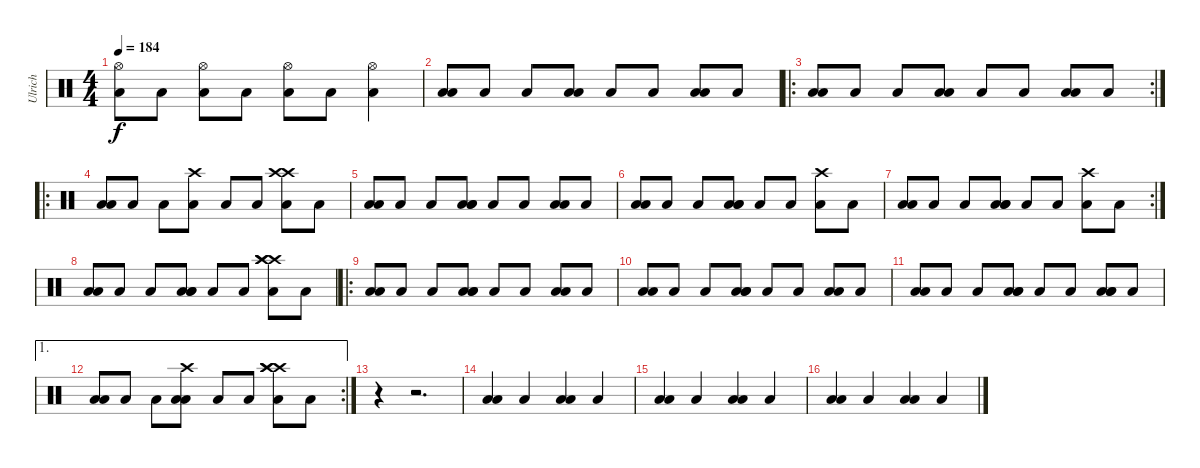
\track ("Ulrich" "Ulrich") {instrument percussion}
\staff {score}
\articulation defaults
\ts (4 4)
\tempo 184
\clef neutral
\ks c
("Low Tom (hit)" "Hi-Hat (open)").8{dy f} "Low Tom (hit)".8 ("Low Tom (hit)" "Hi-Hat (open)").8 "Low Tom (hit)".8 ("Low Tom (hit)" "Hi-Hat (open)").8 "Low Tom (hit)".8 ("Low Tom (hit)" "Hi-Hat (open)").4 |
("Low Tom (hit)" "Low Tom (hit)").8 "Low Tom (hit)".8 "Low Tom (hit)".8 ("Low Tom (hit)" "Low Tom (hit)").8 "Low Tom (hit)".8 "Low Tom (hit)".8 ("Low Tom (hit)" "Low Tom (hit)").8 "Low Tom (hit)".8 |
\ro
\rc 2
("Low Tom (hit)" "Low Tom (hit)").8 "Low Tom (hit)".8 "Low Tom (hit)".8 ("Low Tom (hit)" "Low Tom (hit)").8 "Low Tom (hit)".8 "Low Tom (hit)".8 ("Low Tom (hit)" "Low Tom (hit)").8 "Low Tom (hit)".8 |
\ro
("Low Tom (hit)" "Low Tom (hit)").8 "Low Tom (hit)".8 "Low Tom (hit)".8 ("Low Tom (hit)" "Crash high (hit)").8 "Low Tom (hit)".8 "Low Tom (hit)".8 ("Low Tom (hit)" "Crash high (hit)" "Crash high (hit)").8 "Low Tom (hit)".8 |
\section ("" "")
("Low Tom (hit)" "Low Tom (hit)").8 "Low Tom (hit)".8 "Low Tom (hit)".8 ("Low Tom (hit)" "Low Tom (hit)" "Low Tom (hit)").8 "Low Tom (hit)".8 "Low Tom (hit)".8 ("Low Tom (hit)" "Low Tom (hit)").8 "Low Tom (hit)".8 |
("Low Tom (hit)" "Low Tom (hit)").8 "Low Tom (hit)".8 "Low Tom (hit)".8 ("Low Tom (hit)" "Low Tom (hit)" "Low Tom (hit)").8 "Low Tom (hit)".8 "Low Tom (hit)".8 ("Low Tom (hit)" "Crash high (hit)").8 "Low Tom (hit)".8 |
\rc 2
("Low Tom (hit)" "Low Tom (hit)").8 "Low Tom (hit)".8 "Low Tom (hit)".8 ("Low Tom (hit)" "Low Tom (hit)" "Low Tom (hit)").8 "Low Tom (hit)".8 "Low Tom (hit)".8 ("Low Tom (hit)" "Crash high (hit)").8 "Low Tom (hit)".8 |
("Low Tom (hit)" "Low Tom (hit)").8 "Low Tom (hit)".8 "Low Tom (hit)".8 ("Low Tom (hit)" "Low Tom (hit)" "Low Tom (hit)").8 "Low Tom (hit)".8 "Low Tom (hit)".8 ("Low Tom (hit)" "Crash high (hit)" "Crash high (hit)" "Crash high (hit)").8 "Low Tom (hit)".8 |
\ro
\section ("" "")
("Low Tom (hit)" "Low Tom (hit)").8 "Low Tom (hit)".8 "Low Tom (hit)".8 ("Low Tom (hit)" "Low Tom (hit)" "Low Tom (hit)").8 "Low Tom (hit)".8 "Low Tom (hit)".8 ("Low Tom (hit)" "Low Tom (hit)").8 "Low Tom (hit)".8 |
\section ("" "")
("Low Tom (hit)" "Low Tom (hit)").8 "Low Tom (hit)".8 "Low Tom (hit)".8 ("Low Tom (hit)" "Low Tom (hit)" "Low Tom (hit)").8 "Low Tom (hit)".8 "Low Tom (hit)".8 ("Low Tom (hit)" "Low Tom (hit)").8 "Low Tom (hit)".8 |
("Low Tom (hit)" "Low Tom (hit)").8 "Low Tom (hit)".8 "Low Tom (hit)".8 ("Low Tom (hit)" "Low Tom (hit)" "Low Tom (hit)").8 "Low Tom (hit)".8 "Low Tom (hit)".8 ("Low Tom (hit)" "Low Tom (hit)" "Low Tom (hit)").8 "Low Tom (hit)".8 |
\ae 1
\rc 2
("Low Tom (hit)" "Low Tom (hit)").8 "Low Tom (hit)".8 "Low Tom (hit)".8 ("Low Tom (hit)" "Crash high (hit)" "Low Tom (hit)").8 "Low Tom (hit)".8 "Low Tom (hit)".8 ("Low Tom (hit)" "Crash high (hit)" "Crash high (hit)" "Crash high (hit)").8 "Low Tom (hit)".8 |
r.4 r.2{d} |
("Low Tom (hit)" "Low Tom (hit)").4 "Low Tom (hit)".4 ("Low Tom (hit)" "Low Tom (hit)").4 "Low Tom (hit)".4 |
("Low Tom (hit)" "Low Tom (hit)").4 "Low Tom (hit)".4 ("Low Tom (hit)" "Low Tom (hit)").4 "Low Tom (hit)".4 |
("Low Tom (hit)" "Low Tom (hit)").4 "Low Tom (hit)".4 ("Low Tom (hit)" "Low Tom (hit)").4 "Low Tom (hit)".4
